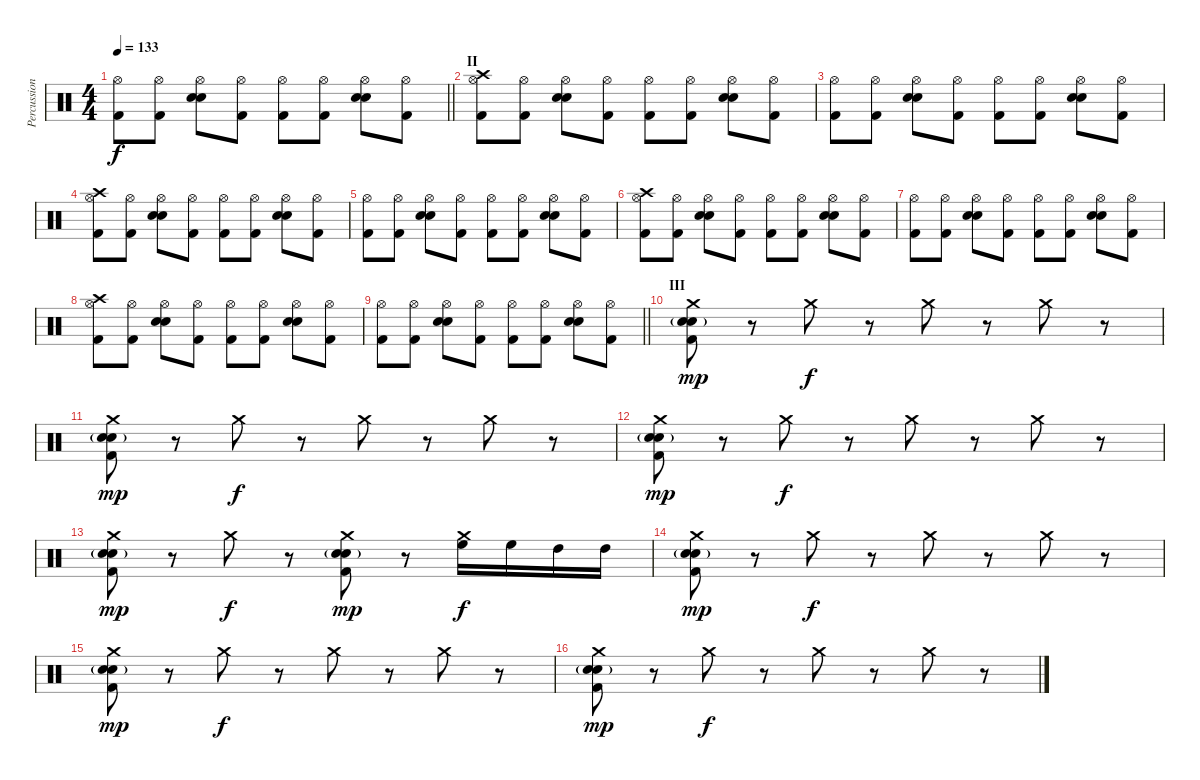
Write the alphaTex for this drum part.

\track ("Percussion" "Percussion") {instrument percussion}
\staff {score}
\articulation defaults
\ts (4 4)
\tempo 133
\clef neutral
\barLineRight lightlight
\ks c
("Kick (hit) 2" "Hi-Hat (open)").8{dy f} ("Kick (hit) 2" "Hi-Hat (open)").8 ("Electric Snare (hit)" "Snare (hit) 2" "Hi-Hat (open)").8 ("Kick (hit) 2" "Hi-Hat (open)").8 ("Kick (hit) 2" "Hi-Hat (open)").8 ("Kick (hit) 2" "Hi-Hat (open)").8 ("Electric Snare (hit)" "Snare (hit) 2" "Hi-Hat (open)").8 ("Kick (hit) 2" "Hi-Hat (open)").8 |
\section ("" "II")
("Crash high (hit)" "Kick (hit) 2" "Hi-Hat (open)").8 ("Kick (hit) 2" "Hi-Hat (open)").8 ("Electric Snare (hit)" "Snare (hit) 2" "Hi-Hat (open)").8 ("Kick (hit) 2" "Hi-Hat (open)").8 ("Kick (hit) 2" "Hi-Hat (open)").8 ("Kick (hit) 2" "Hi-Hat (open)").8 ("Electric Snare (hit)" "Snare (hit) 2" "Hi-Hat (open)").8 ("Kick (hit) 2" "Hi-Hat (open)").8 |
("Kick (hit) 2" "Hi-Hat (open)").8 ("Kick (hit) 2" "Hi-Hat (open)").8 ("Electric Snare (hit)" "Snare (hit) 2" "Hi-Hat (open)").8 ("Kick (hit) 2" "Hi-Hat (open)").8 ("Kick (hit) 2" "Hi-Hat (open)").8 ("Kick (hit) 2" "Hi-Hat (open)").8 ("Electric Snare (hit)" "Snare (hit) 2" "Hi-Hat (open)").8 ("Kick (hit) 2" "Hi-Hat (open)").8 |
("Crash high (hit)" "Kick (hit) 2" "Hi-Hat (open)").8 ("Kick (hit) 2" "Hi-Hat (open)").8 ("Electric Snare (hit)" "Snare (hit) 2" "Hi-Hat (open)").8 ("Kick (hit) 2" "Hi-Hat (open)").8 ("Kick (hit) 2" "Hi-Hat (open)").8 ("Kick (hit) 2" "Hi-Hat (open)").8 ("Electric Snare (hit)" "Snare (hit) 2" "Hi-Hat (open)").8 ("Kick (hit) 2" "Hi-Hat (open)").8 |
("Kick (hit) 2" "Hi-Hat (open)").8 ("Kick (hit) 2" "Hi-Hat (open)").8 ("Electric Snare (hit)" "Snare (hit) 2" "Hi-Hat (open)").8 ("Kick (hit) 2" "Hi-Hat (open)").8 ("Kick (hit) 2" "Hi-Hat (open)").8 ("Kick (hit) 2" "Hi-Hat (open)").8 ("Electric Snare (hit)" "Snare (hit) 2" "Hi-Hat (open)").8 ("Kick (hit) 2" "Hi-Hat (open)").8 |
("Crash high (hit)" "Kick (hit) 2" "Hi-Hat (open)").8 ("Kick (hit) 2" "Hi-Hat (open)").8 ("Electric Snare (hit)" "Snare (hit) 2" "Hi-Hat (open)").8 ("Kick (hit) 2" "Hi-Hat (open)").8 ("Kick (hit) 2" "Hi-Hat (open)").8 ("Kick (hit) 2" "Hi-Hat (open)").8 ("Electric Snare (hit)" "Snare (hit) 2" "Hi-Hat (open)").8 ("Kick (hit) 2" "Hi-Hat (open)").8 |
("Kick (hit) 2" "Hi-Hat (open)").8 ("Kick (hit) 2" "Hi-Hat (open)").8 ("Electric Snare (hit)" "Snare (hit) 2" "Hi-Hat (open)").8 ("Kick (hit) 2" "Hi-Hat (open)").8 ("Kick (hit) 2" "Hi-Hat (open)").8 ("Kick (hit) 2" "Hi-Hat (open)").8 ("Electric Snare (hit)" "Snare (hit) 2" "Hi-Hat (open)").8 ("Kick (hit) 2" "Hi-Hat (open)").8 |
("Crash high (hit)" "Kick (hit) 2" "Hi-Hat (open)").8 ("Kick (hit) 2" "Hi-Hat (open)").8 ("Electric Snare (hit)" "Snare (hit) 2" "Hi-Hat (open)").8 ("Kick (hit) 2" "Hi-Hat (open)").8 ("Kick (hit) 2" "Hi-Hat (open)").8 ("Kick (hit) 2" "Hi-Hat (open)").8 ("Electric Snare (hit)" "Snare (hit) 2" "Hi-Hat (open)").8 ("Kick (hit) 2" "Hi-Hat (open)").8 |
\barLineRight lightlight
("Kick (hit) 2" "Hi-Hat (open)").8 ("Kick (hit) 2" "Hi-Hat (open)").8 ("Electric Snare (hit)" "Snare (hit) 2" "Hi-Hat (open)").8 ("Kick (hit) 2" "Hi-Hat (open)").8 ("Kick (hit) 2" "Hi-Hat (open)").8 ("Kick (hit) 2" "Hi-Hat (open)").8 ("Electric Snare (hit)" "Snare (hit) 2" "Hi-Hat (open)").8 ("Kick (hit) 2" "Hi-Hat (open)").8 |
\section ("" "III")
("Crash medium (hit)" "Electric Snare (hit)" "Snare (hit) 2"{g} "Kick (hit) 2").8{dy mp} r.8 "Crash medium (hit)".8{dy f} r.8 "Crash medium (hit)".8 r.8 "Crash medium (hit)".8 r.8 |
("Crash medium (hit)" "Electric Snare (hit)" "Snare (hit) 2"{g} "Kick (hit) 2").8{dy mp} r.8 "Crash medium (hit)".8{dy f} r.8 "Crash medium (hit)".8 r.8 "Crash medium (hit)".8 r.8 |
("Crash medium (hit)" "Electric Snare (hit)" "Snare (hit) 2"{g} "Kick (hit) 2").8{dy mp} r.8 "Crash medium (hit)".8{dy f} r.8 "Crash medium (hit)".8 r.8 "Crash medium (hit)".8 r.8 |
("Crash medium (hit)" "Electric Snare (hit)" "Snare (hit) 2"{g} "Kick (hit) 2").8{dy mp} r.8 "Crash medium (hit)".8{dy f} r.8 ("Crash medium (hit)" "Electric Snare (hit)" "Snare (hit) 2"{g} "Kick (hit) 2").8{dy mp} r.8 ("Crash medium (hit)" "High Floor Tom (hit)").16{dy f} "High Floor Tom (hit)".16 "High Tom (hit)".16 "High Tom (hit)".16 |
("Crash medium (hit)" "Electric Snare (hit)" "Snare (hit) 2"{g} "Kick (hit) 2").8{dy mp} r.8 "Crash medium (hit)".8{dy f} r.8 "Crash medium (hit)".8 r.8 "Crash medium (hit)".8 r.8 |
("Crash medium (hit)" "Electric Snare (hit)" "Snare (hit) 2"{g} "Kick (hit) 2").8{dy mp} r.8 "Crash medium (hit)".8{dy f} r.8 "Crash medium (hit)".8 r.8 "Crash medium (hit)".8 r.8 |
("Crash medium (hit)" "Electric Snare (hit)" "Snare (hit) 2"{g} "Kick (hit) 2").8{dy mp} r.8 "Crash medium (hit)".8{dy f} r.8 "Crash medium (hit)".8 r.8 "Crash medium (hit)".8 r.8
